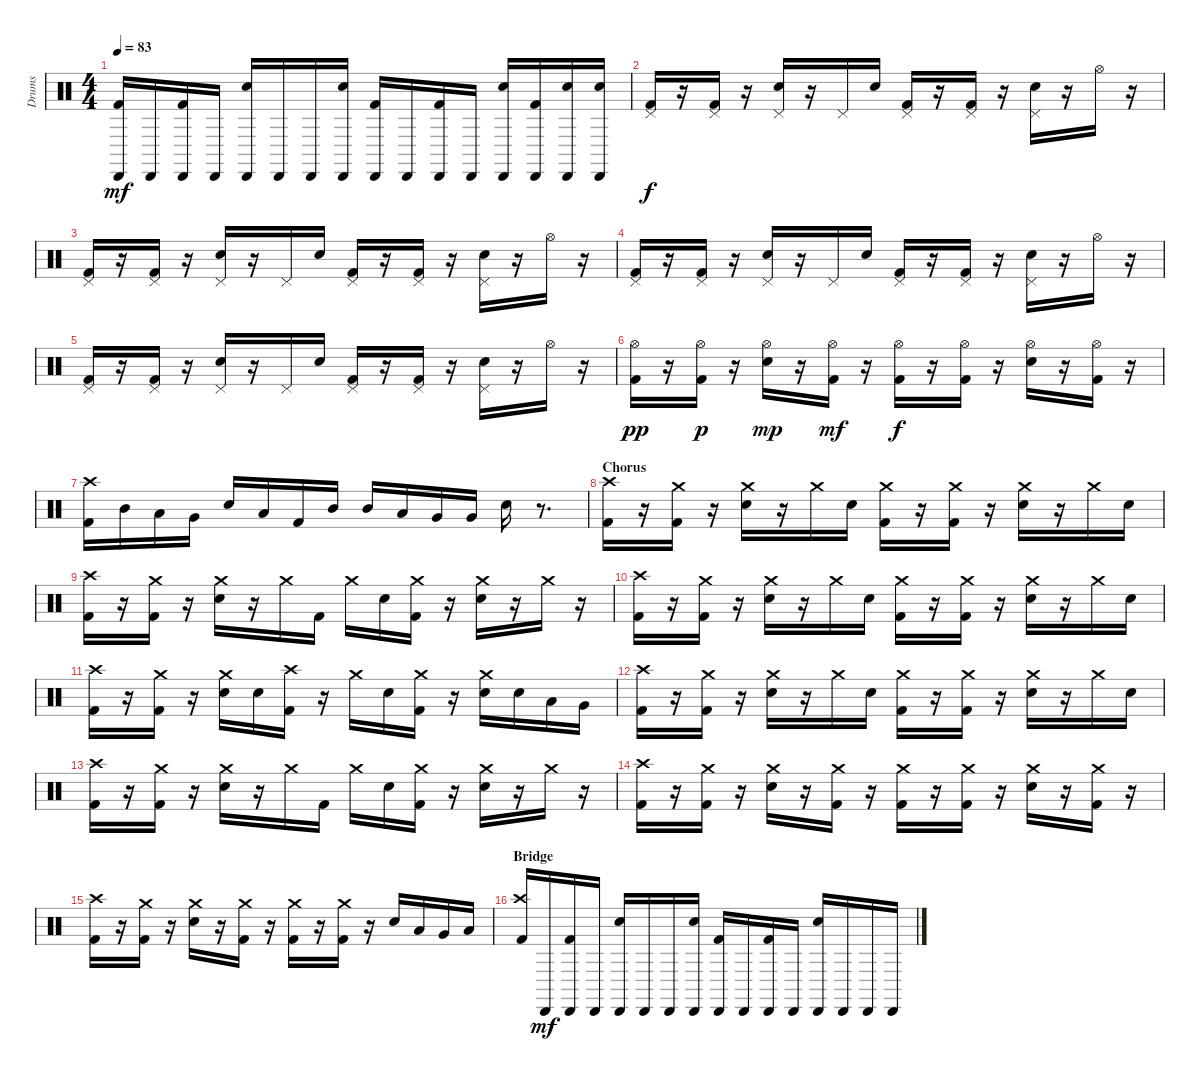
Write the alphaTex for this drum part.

\track ("Drums" "Drums") {instrument percussion}
\staff {score}
\articulation defaults
\ts (4 4)
\tempo 83
\clef neutral
\ks c
("Cabasa (hit)" "Kick (hit) 2").16{dy mf} "Cabasa (hit)".16 ("Cabasa (hit)" "Kick (hit) 2").16 "Cabasa (hit)".16 ("Cabasa (hit)" "Electric Snare (hit)").16 "Cabasa (hit)".16 "Cabasa (hit)".16 ("Cabasa (hit)" "Electric Snare (hit)").16 ("Cabasa (hit)" "Kick (hit) 2").16 "Cabasa (hit)".16 ("Cabasa (hit)" "Kick (hit) 2").16 "Cabasa (hit)".16 ("Cabasa (hit)" "Electric Snare (hit)").16 ("Cabasa (hit)" "Kick (hit) 2").16 ("Cabasa (hit)" "Electric Snare (hit)").16 ("Cabasa (hit)" "Electric Snare (hit)").16 |
("Pedal Hi-Hat (hit)" "Kick (hit) 2").16{dy f} r.16 ("Pedal Hi-Hat (hit)" "Kick (hit) 2").16 r.16 ("Pedal Hi-Hat (hit)" "Electric Snare (hit)").16 r.16 "Pedal Hi-Hat (hit)".16 "Electric Snare (hit)".16 ("Pedal Hi-Hat (hit)" "Kick (hit) 2").16 r.16 ("Pedal Hi-Hat (hit)" "Kick (hit) 2").16 r.16 ("Pedal Hi-Hat (hit)" "Electric Snare (hit)").16 r.16 "Hi-Hat (open)".16 r.16 |
("Pedal Hi-Hat (hit)" "Kick (hit) 2").16 r.16 ("Pedal Hi-Hat (hit)" "Kick (hit) 2").16 r.16 ("Pedal Hi-Hat (hit)" "Electric Snare (hit)").16 r.16 "Pedal Hi-Hat (hit)".16 "Electric Snare (hit)".16 ("Pedal Hi-Hat (hit)" "Kick (hit) 2").16 r.16 ("Pedal Hi-Hat (hit)" "Kick (hit) 2").16 r.16 ("Pedal Hi-Hat (hit)" "Electric Snare (hit)").16 r.16 "Hi-Hat (open)".16 r.16 |
("Pedal Hi-Hat (hit)" "Kick (hit) 2").16 r.16 ("Pedal Hi-Hat (hit)" "Kick (hit) 2").16 r.16 ("Pedal Hi-Hat (hit)" "Electric Snare (hit)").16 r.16 "Pedal Hi-Hat (hit)".16 "Electric Snare (hit)".16 ("Pedal Hi-Hat (hit)" "Kick (hit) 2").16 r.16 ("Pedal Hi-Hat (hit)" "Kick (hit) 2").16 r.16 ("Pedal Hi-Hat (hit)" "Electric Snare (hit)").16 r.16 "Hi-Hat (open)".16 r.16 |
("Pedal Hi-Hat (hit)" "Kick (hit) 2").16 r.16 ("Pedal Hi-Hat (hit)" "Kick (hit) 2").16 r.16 ("Pedal Hi-Hat (hit)" "Electric Snare (hit)").16 r.16 "Pedal Hi-Hat (hit)".16 "Electric Snare (hit)".16 ("Pedal Hi-Hat (hit)" "Kick (hit) 2").16 r.16 ("Pedal Hi-Hat (hit)" "Kick (hit) 2").16 r.16 ("Pedal Hi-Hat (hit)" "Electric Snare (hit)").16 r.16 "Hi-Hat (open)".16 r.16 |
("Hi-Hat (open)" "Kick (hit) 2").16{dy pp} r.16 ("Hi-Hat (open)" "Kick (hit) 2").16{dy p} r.16 ("Hi-Hat (open)" "Electric Snare (hit)").16{dy mp} r.16 ("Hi-Hat (open)" "Kick (hit) 2").16{dy mf} r.16 ("Hi-Hat (open)" "Kick (hit) 2").16{dy f} r.16 ("Hi-Hat (open)" "Kick (hit) 2").16 r.16 ("Hi-Hat (open)" "Electric Snare (hit)").16 r.16 ("Hi-Hat (open)" "Kick (hit) 2").16 r.16 |
("Crash high (hit)" "Kick (hit) 2").16 "Mid Tom (hit)".16 "Low Tom (hit)".16 "Very Low Tom (hit)".16 "Electric Snare (hit)".16 "Low Tom (hit)".16 "Kick (hit) 2".16 "Mid Tom (hit)".16 "Mid Tom (hit)".16 "Low Tom (hit)".16 "Very Low Tom (hit)".16 "Very Low Tom (hit)".16 "Electric Snare (hit)".16 r.8{d} |
\section ("" "Chorus")
("Crash high (hit)" "Kick (hit) 2").16 r.16 ("Crash medium (hit)" "Kick (hit) 2").16 r.16 ("Crash medium (hit)" "Electric Snare (hit)").16 r.16 "Crash medium (hit)".16 "Electric Snare (hit)".16 ("Crash medium (hit)" "Kick (hit) 2").16 r.16 ("Crash medium (hit)" "Kick (hit) 2").16 r.16 ("Crash medium (hit)" "Electric Snare (hit)").16 r.16 "Crash medium (hit)".16 "Electric Snare (hit)".16 |
("Crash high (hit)" "Kick (hit) 2").16 r.16 ("Crash medium (hit)" "Kick (hit) 2").16 r.16 ("Crash medium (hit)" "Electric Snare (hit)").16 r.16 "Crash medium (hit)".16 "Kick (hit) 2".16 "Crash medium (hit)".16 "Electric Snare (hit)".16 ("Crash medium (hit)" "Kick (hit) 2").16 r.16 ("Crash medium (hit)" "Electric Snare (hit)").16 r.16 "Crash medium (hit)".16 r.16 |
("Crash high (hit)" "Kick (hit) 2").16 r.16 ("Crash medium (hit)" "Kick (hit) 2").16 r.16 ("Crash medium (hit)" "Electric Snare (hit)").16 r.16 "Crash medium (hit)".16 "Electric Snare (hit)".16 ("Crash medium (hit)" "Kick (hit) 2").16 r.16 ("Crash medium (hit)" "Kick (hit) 2").16 r.16 ("Crash medium (hit)" "Electric Snare (hit)").16 r.16 "Crash medium (hit)".16 "Electric Snare (hit)".16 |
("Crash high (hit)" "Kick (hit) 2").16 r.16 ("Crash medium (hit)" "Kick (hit) 2").16 r.16 ("Crash medium (hit)" "Electric Snare (hit)").16 "Electric Snare (hit)".16 ("Crash high (hit)" "Kick (hit) 2").16 r.16 "Crash medium (hit)".16 "Electric Snare (hit)".16 ("Crash medium (hit)" "Kick (hit) 2").16 r.16 ("Crash medium (hit)" "Electric Snare (hit)").16 "Electric Snare (hit)".16 "Low Tom (hit)".16 "Very Low Tom (hit)".16 |
("Crash high (hit)" "Kick (hit) 2").16 r.16 ("Crash medium (hit)" "Kick (hit) 2").16 r.16 ("Crash medium (hit)" "Electric Snare (hit)").16 r.16 "Crash medium (hit)".16 "Electric Snare (hit)".16 ("Crash medium (hit)" "Kick (hit) 2").16 r.16 ("Crash medium (hit)" "Kick (hit) 2").16 r.16 ("Crash medium (hit)" "Electric Snare (hit)").16 r.16 "Crash medium (hit)".16 "Electric Snare (hit)".16 |
("Crash high (hit)" "Kick (hit) 2").16 r.16 ("Crash medium (hit)" "Kick (hit) 2").16 r.16 ("Crash medium (hit)" "Electric Snare (hit)").16 r.16 "Crash medium (hit)".16 "Kick (hit) 2".16 "Crash medium (hit)".16 "Electric Snare (hit)".16 ("Crash medium (hit)" "Kick (hit) 2").16 r.16 ("Crash medium (hit)" "Electric Snare (hit)").16 r.16 "Crash medium (hit)".16 r.16 |
("Crash high (hit)" "Kick (hit) 2").16 r.16 ("Crash medium (hit)" "Kick (hit) 2").16 r.16 ("Crash medium (hit)" "Electric Snare (hit)").16 r.16 ("Crash medium (hit)" "Kick (hit) 2").16 r.16 ("Crash medium (hit)" "Kick (hit) 2").16 r.16 ("Crash medium (hit)" "Kick (hit) 2").16 r.16 ("Crash medium (hit)" "Electric Snare (hit)").16 r.16 ("Crash medium (hit)" "Kick (hit) 2").16 r.16 |
("Crash high (hit)" "Kick (hit) 2").16 r.16 ("Crash medium (hit)" "Kick (hit) 2").16 r.16 ("Crash medium (hit)" "Electric Snare (hit)").16 r.16 ("Crash medium (hit)" "Kick (hit) 2").16 r.16 ("Crash medium (hit)" "Kick (hit) 2").16 r.16 ("Crash medium (hit)" "Kick (hit) 2").16 r.16 "Electric Snare (hit)".16 "Low Tom (hit)".16 "Very Low Tom (hit)".16 "Low Floor Tom (hit)".16 |
\section ("" "Bridge")
("Crash high (hit)" "Kick (hit) 2").16 "Cabasa (hit)".16{dy mf} ("Cabasa (hit)" "Kick (hit) 2").16 "Cabasa (hit)".16 ("Cabasa (hit)" "Electric Snare (hit)").16 "Cabasa (hit)".16 "Cabasa (hit)".16 ("Cabasa (hit)" "Electric Snare (hit)").16 ("Cabasa (hit)" "Kick (hit) 2").16 "Cabasa (hit)".16 ("Cabasa (hit)" "Kick (hit) 2").16 "Cabasa (hit)".16 ("Cabasa (hit)" "Electric Snare (hit)").16 "Cabasa (hit)".16 "Cabasa (hit)".16 "Cabasa (hit)".16
